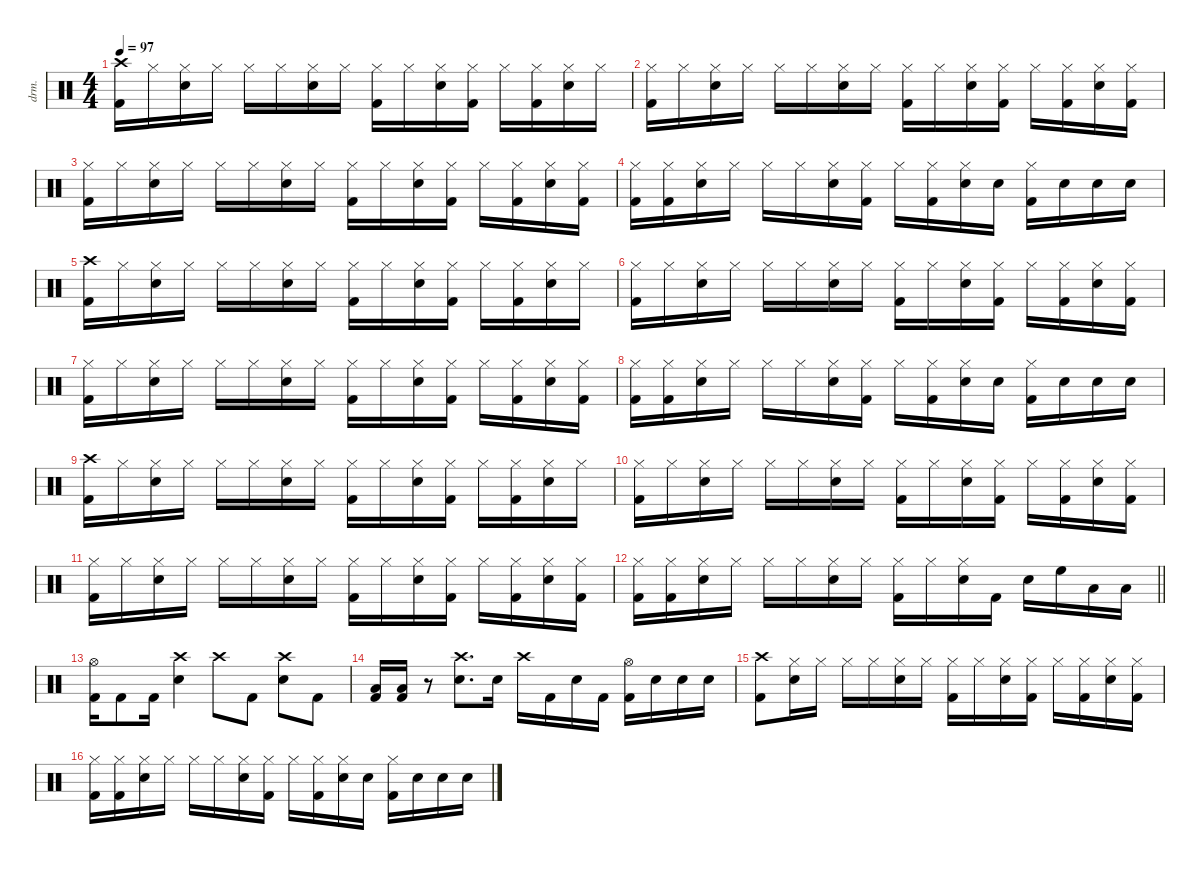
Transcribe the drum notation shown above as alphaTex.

\defaultSystemsLayout 4
\hideDynamics
\bracketExtendMode nobrackets
\track ("Drumkit" "drm.") {instrument percussion}
\staff {score}
\articulation defaults
\ts (4 4)
\tempo 97
\clef neutral
\ks c
("Kick (hit) 2" "Crash high (hit)").16{dy mf beam Down} "Hi-Hat (closed)".16{beam Down} ("Hi-Hat (closed)" "Snare (hit) 2").16{beam Down} "Hi-Hat (closed)".16{beam Down} "Hi-Hat (closed)".16{beam Down} "Hi-Hat (closed)".16{beam Down} ("Hi-Hat (closed)" "Snare (hit) 2").16{beam Down} "Hi-Hat (closed)".16{beam Down} ("Hi-Hat (closed)" "Kick (hit) 2").16{beam Down} "Hi-Hat (closed)".16{beam Down} ("Hi-Hat (closed)" "Snare (hit) 2").16{beam Down} ("Hi-Hat (closed)" "Kick (hit) 2").16{beam Down} "Hi-Hat (closed)".16{beam Down} ("Hi-Hat (closed)" "Kick (hit) 2").16{beam Down} ("Hi-Hat (closed)" "Snare (hit) 2").16{beam Down} "Hi-Hat (closed)".16{beam Down} |
("Hi-Hat (closed)" "Kick (hit) 2").16{beam Down} "Hi-Hat (closed)".16{beam Down} ("Hi-Hat (closed)" "Snare (hit) 2").16{beam Down} "Hi-Hat (closed)".16{beam Down} "Hi-Hat (closed)".16{beam Down} "Hi-Hat (closed)".16{beam Down} ("Hi-Hat (closed)" "Snare (hit) 2").16{beam Down} "Hi-Hat (closed)".16{beam Down} ("Hi-Hat (closed)" "Kick (hit) 2").16{beam Down} "Hi-Hat (closed)".16{beam Down} ("Hi-Hat (closed)" "Snare (hit) 2").16{beam Down} ("Hi-Hat (closed)" "Kick (hit) 2").16{beam Down} "Hi-Hat (closed)".16{beam Down} ("Hi-Hat (closed)" "Kick (hit) 2").16{beam Down} ("Hi-Hat (closed)" "Snare (hit) 2").16{beam Down} ("Hi-Hat (closed)" "Kick (hit) 2").16{beam Down} |
("Hi-Hat (closed)" "Kick (hit) 2").16{beam Down} "Hi-Hat (closed)".16{beam Down} ("Hi-Hat (closed)" "Snare (hit) 2").16{beam Down} "Hi-Hat (closed)".16{beam Down} "Hi-Hat (closed)".16{beam Down} "Hi-Hat (closed)".16{beam Down} ("Hi-Hat (closed)" "Snare (hit) 2").16{beam Down} "Hi-Hat (closed)".16{beam Down} ("Hi-Hat (closed)" "Kick (hit) 2").16{beam Down} "Hi-Hat (closed)".16{beam Down} ("Hi-Hat (closed)" "Snare (hit) 2").16{beam Down} ("Hi-Hat (closed)" "Kick (hit) 2").16{beam Down} "Hi-Hat (closed)".16{beam Down} ("Hi-Hat (closed)" "Kick (hit) 2").16{beam Down} ("Hi-Hat (closed)" "Snare (hit) 2").16{beam Down} ("Hi-Hat (closed)" "Kick (hit) 2").16{beam Down} |
("Hi-Hat (closed)" "Kick (hit) 2").16{beam Down} ("Hi-Hat (closed)" "Kick (hit) 2").16{beam Down} ("Hi-Hat (closed)" "Snare (hit) 2").16{beam Down} "Hi-Hat (closed)".16{beam Down} "Hi-Hat (closed)".16{beam Down} "Hi-Hat (closed)".16{beam Down} ("Hi-Hat (closed)" "Snare (hit) 2").16{beam Down} ("Hi-Hat (closed)" "Kick (hit) 2").16{beam Down} "Hi-Hat (closed)".16{beam Down} ("Hi-Hat (closed)" "Kick (hit) 2").16{beam Down} ("Hi-Hat (closed)" "Snare (hit) 2").16{beam Down} "Snare (hit) 2".16{beam Down} ("Hi-Hat (closed)" "Kick (hit) 2").16{beam Down} "Snare (hit) 2".16{beam Down} "Snare (hit) 2".16{beam Down} "Snare (hit) 2".16{beam Down} |
("Kick (hit) 2" "Crash high (hit)").16{beam Down} "Hi-Hat (closed)".16{beam Down} ("Hi-Hat (closed)" "Snare (hit) 2").16{beam Down} "Hi-Hat (closed)".16{beam Down} "Hi-Hat (closed)".16{beam Down} "Hi-Hat (closed)".16{beam Down} ("Hi-Hat (closed)" "Snare (hit) 2").16{beam Down} "Hi-Hat (closed)".16{beam Down} ("Hi-Hat (closed)" "Kick (hit) 2").16{beam Down} "Hi-Hat (closed)".16{beam Down} ("Hi-Hat (closed)" "Snare (hit) 2").16{beam Down} ("Hi-Hat (closed)" "Kick (hit) 2").16{beam Down} "Hi-Hat (closed)".16{beam Down} ("Hi-Hat (closed)" "Kick (hit) 2").16{beam Down} ("Hi-Hat (closed)" "Snare (hit) 2").16{beam Down} "Hi-Hat (closed)".16{beam Down} |
("Hi-Hat (closed)" "Kick (hit) 2").16{beam Down} "Hi-Hat (closed)".16{beam Down} ("Hi-Hat (closed)" "Snare (hit) 2").16{beam Down} "Hi-Hat (closed)".16{beam Down} "Hi-Hat (closed)".16{beam Down} "Hi-Hat (closed)".16{beam Down} ("Hi-Hat (closed)" "Snare (hit) 2").16{beam Down} "Hi-Hat (closed)".16{beam Down} ("Hi-Hat (closed)" "Kick (hit) 2").16{beam Down} "Hi-Hat (closed)".16{beam Down} ("Hi-Hat (closed)" "Snare (hit) 2").16{beam Down} ("Hi-Hat (closed)" "Kick (hit) 2").16{beam Down} "Hi-Hat (closed)".16{beam Down} ("Hi-Hat (closed)" "Kick (hit) 2").16{beam Down} ("Hi-Hat (closed)" "Snare (hit) 2").16{beam Down} ("Hi-Hat (closed)" "Kick (hit) 2").16{beam Down} |
("Hi-Hat (closed)" "Kick (hit) 2").16{beam Down} "Hi-Hat (closed)".16{beam Down} ("Hi-Hat (closed)" "Snare (hit) 2").16{beam Down} "Hi-Hat (closed)".16{beam Down} "Hi-Hat (closed)".16{beam Down} "Hi-Hat (closed)".16{beam Down} ("Hi-Hat (closed)" "Snare (hit) 2").16{beam Down} "Hi-Hat (closed)".16{beam Down} ("Hi-Hat (closed)" "Kick (hit) 2").16{beam Down} "Hi-Hat (closed)".16{beam Down} ("Hi-Hat (closed)" "Snare (hit) 2").16{beam Down} ("Hi-Hat (closed)" "Kick (hit) 2").16{beam Down} "Hi-Hat (closed)".16{beam Down} ("Hi-Hat (closed)" "Kick (hit) 2").16{beam Down} ("Hi-Hat (closed)" "Snare (hit) 2").16{beam Down} ("Hi-Hat (closed)" "Kick (hit) 2").16{beam Down} |
("Hi-Hat (closed)" "Kick (hit) 2").16{beam Down} ("Hi-Hat (closed)" "Kick (hit) 2").16{beam Down} ("Hi-Hat (closed)" "Snare (hit) 2").16{beam Down} "Hi-Hat (closed)".16{beam Down} "Hi-Hat (closed)".16{beam Down} "Hi-Hat (closed)".16{beam Down} ("Hi-Hat (closed)" "Snare (hit) 2").16{beam Down} ("Hi-Hat (closed)" "Kick (hit) 2").16{beam Down} "Hi-Hat (closed)".16{beam Down} ("Hi-Hat (closed)" "Kick (hit) 2").16{beam Down} ("Hi-Hat (closed)" "Snare (hit) 2").16{beam Down} "Snare (hit) 2".16{beam Down} ("Hi-Hat (closed)" "Kick (hit) 2").16{beam Down} "Snare (hit) 2".16{beam Down} "Snare (hit) 2".16{beam Down} "Snare (hit) 2".16{beam Down} |
("Kick (hit) 2" "Crash high (hit)").16{beam Down} "Hi-Hat (closed)".16{beam Down} ("Hi-Hat (closed)" "Snare (hit) 2").16{beam Down} "Hi-Hat (closed)".16{beam Down} "Hi-Hat (closed)".16{beam Down} "Hi-Hat (closed)".16{beam Down} ("Hi-Hat (closed)" "Snare (hit) 2").16{beam Down} "Hi-Hat (closed)".16{beam Down} ("Hi-Hat (closed)" "Kick (hit) 2").16{beam Down} "Hi-Hat (closed)".16{beam Down} ("Hi-Hat (closed)" "Snare (hit) 2").16{beam Down} ("Hi-Hat (closed)" "Kick (hit) 2").16{beam Down} "Hi-Hat (closed)".16{beam Down} ("Hi-Hat (closed)" "Kick (hit) 2").16{beam Down} ("Hi-Hat (closed)" "Snare (hit) 2").16{beam Down} "Hi-Hat (closed)".16{beam Down} |
("Hi-Hat (closed)" "Kick (hit) 2").16{beam Down} "Hi-Hat (closed)".16{beam Down} ("Hi-Hat (closed)" "Snare (hit) 2").16{beam Down} "Hi-Hat (closed)".16{beam Down} "Hi-Hat (closed)".16{beam Down} "Hi-Hat (closed)".16{beam Down} ("Hi-Hat (closed)" "Snare (hit) 2").16{beam Down} "Hi-Hat (closed)".16{beam Down} ("Hi-Hat (closed)" "Kick (hit) 2").16{beam Down} "Hi-Hat (closed)".16{beam Down} ("Hi-Hat (closed)" "Snare (hit) 2").16{beam Down} ("Hi-Hat (closed)" "Kick (hit) 2").16{beam Down} "Hi-Hat (closed)".16{beam Down} ("Hi-Hat (closed)" "Kick (hit) 2").16{beam Down} ("Hi-Hat (closed)" "Snare (hit) 2").16{beam Down} ("Hi-Hat (closed)" "Kick (hit) 2").16{beam Down} |
("Hi-Hat (closed)" "Kick (hit) 2").16{beam Down} "Hi-Hat (closed)".16{beam Down} ("Hi-Hat (closed)" "Snare (hit) 2").16{beam Down} "Hi-Hat (closed)".16{beam Down} "Hi-Hat (closed)".16{beam Down} "Hi-Hat (closed)".16{beam Down} ("Hi-Hat (closed)" "Snare (hit) 2").16{beam Down} "Hi-Hat (closed)".16{beam Down} ("Hi-Hat (closed)" "Kick (hit) 2").16{beam Down} "Hi-Hat (closed)".16{beam Down} ("Hi-Hat (closed)" "Snare (hit) 2").16{beam Down} ("Hi-Hat (closed)" "Kick (hit) 2").16{beam Down} "Hi-Hat (closed)".16{beam Down} ("Hi-Hat (closed)" "Kick (hit) 2").16{beam Down} ("Hi-Hat (closed)" "Snare (hit) 2").16{beam Down} ("Hi-Hat (closed)" "Kick (hit) 2").16{beam Down} |
\barLineRight lightlight
("Hi-Hat (closed)" "Kick (hit) 2").16{beam Down} ("Hi-Hat (closed)" "Kick (hit) 2").16{beam Down} ("Hi-Hat (closed)" "Snare (hit) 2").16{beam Down} "Hi-Hat (closed)".16{beam Down} "Hi-Hat (closed)".16{beam Down} "Hi-Hat (closed)".16{beam Down} ("Hi-Hat (closed)" "Snare (hit) 2").16{beam Down} "Hi-Hat (closed)".16{beam Down} ("Hi-Hat (closed)" "Kick (hit) 2").16{beam Down} "Hi-Hat (closed)".16{beam Down} ("Hi-Hat (closed)" "Snare (hit) 2").16{beam Down} "Kick (hit) 2".16{beam Down} "Snare (hit) 2".16{beam Down} "High Floor Tom (hit)".16{beam Down} "Low Tom (hit)".16{beam Down} "Low Tom (hit)".16{beam Down} |
("Kick (hit) 2" "Hi-Hat (open)").16{beam Down} "Kick (hit) 2".8{beam Down} "Kick (hit) 2".16{beam Down} ("Snare (hit) 2" "Crash high (hit)").4{beam Down} "Crash high (hit)".8{beam Down} "Kick (hit) 2".8{beam Down} ("Snare (hit) 2" "Crash high (hit)").8{beam Down} "Kick (hit) 2".8{beam Down} |
("Kick (hit) 2" "Low Tom (hit)").16{beam Up} ("Kick (hit) 2" "Low Tom (hit)").16{beam Up} r.8{beam Down} ("Snare (hit) 2" "Crash high (hit)").8{d beam Down} "Snare (hit) 2".16{beam Down} "Crash high (hit)".16{beam Down} "Kick (hit) 2".16{beam Down} "Snare (hit) 2".16{beam Down} "Kick (hit) 2".16{beam Down} ("Kick (hit) 2" "Hi-Hat (open)").16{beam Down} "Snare (hit) 2".16{beam Down} "Snare (hit) 2".16{beam Down} "Snare (hit) 2".16{beam Down} |
("Kick (hit) 2" "Crash high (hit)").8{beam Down} ("Hi-Hat (closed)" "Snare (hit) 2").16{beam Down} "Hi-Hat (closed)".16{beam Down} "Hi-Hat (closed)".16{beam Down} "Hi-Hat (closed)".16{beam Down} ("Hi-Hat (closed)" "Snare (hit) 2").16{beam Down} "Hi-Hat (closed)".16{beam Down} ("Hi-Hat (closed)" "Kick (hit) 2").16{beam Down} "Hi-Hat (closed)".16{beam Down} ("Hi-Hat (closed)" "Snare (hit) 2").16{beam Down} ("Hi-Hat (closed)" "Kick (hit) 2").16{beam Down} "Hi-Hat (closed)".16{beam Down} ("Hi-Hat (closed)" "Kick (hit) 2").16{beam Down} ("Hi-Hat (closed)" "Snare (hit) 2").16{beam Down} ("Hi-Hat (closed)" "Kick (hit) 2").16{beam Down} |
("Hi-Hat (closed)" "Kick (hit) 2").16{beam Down} ("Hi-Hat (closed)" "Kick (hit) 2").16{beam Down} ("Hi-Hat (closed)" "Snare (hit) 2").16{beam Down} "Hi-Hat (closed)".16{beam Down} "Hi-Hat (closed)".16{beam Down} "Hi-Hat (closed)".16{beam Down} ("Hi-Hat (closed)" "Snare (hit) 2").16{beam Down} ("Hi-Hat (closed)" "Kick (hit) 2").16{beam Down} "Hi-Hat (closed)".16{beam Down} ("Hi-Hat (closed)" "Kick (hit) 2").16{beam Down} ("Hi-Hat (closed)" "Snare (hit) 2").16{beam Down} "Snare (hit) 2".16{beam Down} ("Hi-Hat (closed)" "Kick (hit) 2").16{beam Down} "Snare (hit) 2".16{beam Down} "Snare (hit) 2".16{beam Down} "Snare (hit) 2".16{beam Down}
